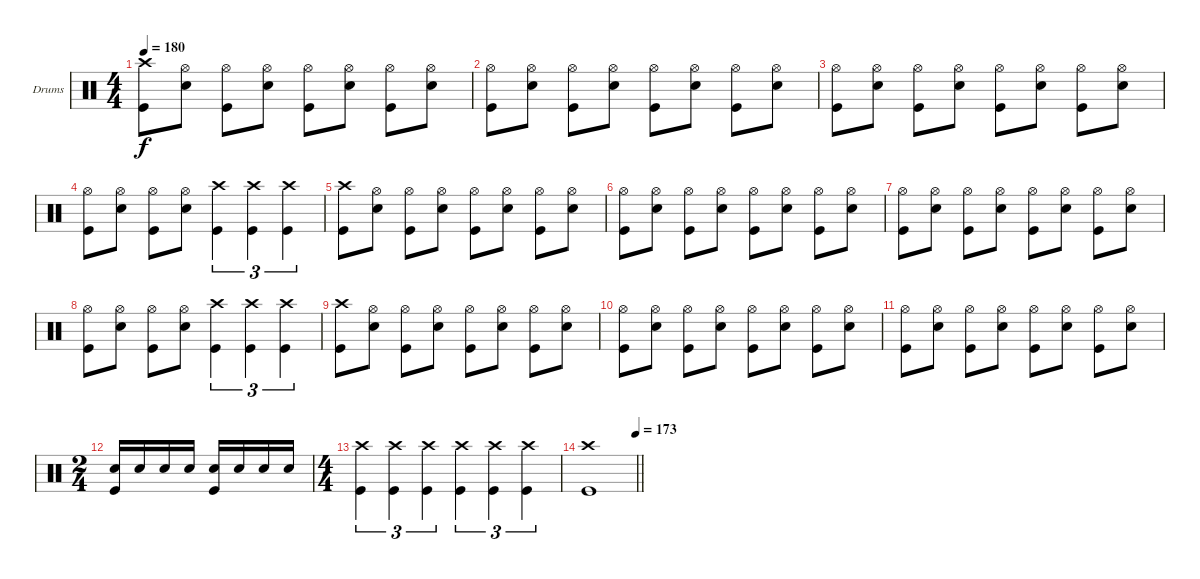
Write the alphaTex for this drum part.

\bracketExtendMode groupsimilarinstruments
\firstSystemTrackNameOrientation horizontal
\otherSystemsTrackNameOrientation horizontal
\track ("Drums" "Drums") {instrument percussion}
\staff {score}
\articulation defaults
\ts (4 4)
\tempo 180
\clef neutral
\ks c
("Crash high (hit)" "Kick (hit)").8{dy f} ("Hi-Hat (open)" "Snare (hit) 2").8 ("Hi-Hat (open)" "Kick (hit)").8 ("Hi-Hat (open)" "Snare (hit) 2").8 ("Hi-Hat (open)" "Kick (hit)").8 ("Hi-Hat (open)" "Snare (hit) 2").8 ("Hi-Hat (open)" "Kick (hit)").8 ("Hi-Hat (open)" "Snare (hit) 2").8 |
("Hi-Hat (open)" "Kick (hit)").8 ("Hi-Hat (open)" "Snare (hit) 2").8 ("Hi-Hat (open)" "Kick (hit)").8 ("Hi-Hat (open)" "Snare (hit) 2").8 ("Hi-Hat (open)" "Kick (hit)").8 ("Hi-Hat (open)" "Snare (hit) 2").8 ("Hi-Hat (open)" "Kick (hit)").8 ("Hi-Hat (open)" "Snare (hit) 2").8 |
("Hi-Hat (open)" "Kick (hit)").8 ("Hi-Hat (open)" "Snare (hit) 2").8 ("Hi-Hat (open)" "Kick (hit)").8 ("Hi-Hat (open)" "Snare (hit) 2").8 ("Hi-Hat (open)" "Kick (hit)").8 ("Hi-Hat (open)" "Snare (hit) 2").8 ("Hi-Hat (open)" "Kick (hit)").8 ("Hi-Hat (open)" "Snare (hit) 2").8 |
("Hi-Hat (open)" "Kick (hit)").8 ("Hi-Hat (open)" "Snare (hit) 2").8 ("Hi-Hat (open)" "Kick (hit)").8 ("Hi-Hat (open)" "Snare (hit) 2").8 ("Crash high (hit)" "Kick (hit)").4{tu (3 2)} ("Crash high (hit)" "Kick (hit)").4{tu (3 2)} ("Crash high (hit)" "Kick (hit)").4{tu (3 2)} |
("Crash high (hit)" "Kick (hit)").8 ("Hi-Hat (open)" "Snare (hit) 2").8 ("Hi-Hat (open)" "Kick (hit)").8 ("Hi-Hat (open)" "Snare (hit) 2").8 ("Hi-Hat (open)" "Kick (hit)").8 ("Hi-Hat (open)" "Snare (hit) 2").8 ("Hi-Hat (open)" "Kick (hit)").8 ("Hi-Hat (open)" "Snare (hit) 2").8 |
("Hi-Hat (open)" "Kick (hit)").8 ("Hi-Hat (open)" "Snare (hit) 2").8 ("Hi-Hat (open)" "Kick (hit)").8 ("Hi-Hat (open)" "Snare (hit) 2").8 ("Hi-Hat (open)" "Kick (hit)").8 ("Hi-Hat (open)" "Snare (hit) 2").8 ("Hi-Hat (open)" "Kick (hit)").8 ("Hi-Hat (open)" "Snare (hit) 2").8 |
("Hi-Hat (open)" "Kick (hit)").8 ("Hi-Hat (open)" "Snare (hit) 2").8 ("Hi-Hat (open)" "Kick (hit)").8 ("Hi-Hat (open)" "Snare (hit) 2").8 ("Hi-Hat (open)" "Kick (hit)").8 ("Hi-Hat (open)" "Snare (hit) 2").8 ("Hi-Hat (open)" "Kick (hit)").8 ("Hi-Hat (open)" "Snare (hit) 2").8 |
("Hi-Hat (open)" "Kick (hit)").8 ("Hi-Hat (open)" "Snare (hit) 2").8 ("Hi-Hat (open)" "Kick (hit)").8 ("Hi-Hat (open)" "Snare (hit) 2").8 ("Crash high (hit)" "Kick (hit)").4{tu (3 2)} ("Crash high (hit)" "Kick (hit)").4{tu (3 2)} ("Crash high (hit)" "Kick (hit)").4{tu (3 2)} |
("Crash high (hit)" "Kick (hit)").8 ("Hi-Hat (open)" "Snare (hit) 2").8 ("Hi-Hat (open)" "Kick (hit)").8 ("Hi-Hat (open)" "Snare (hit) 2").8 ("Hi-Hat (open)" "Kick (hit)").8 ("Hi-Hat (open)" "Snare (hit) 2").8 ("Hi-Hat (open)" "Kick (hit)").8 ("Hi-Hat (open)" "Snare (hit) 2").8 |
("Hi-Hat (open)" "Kick (hit)").8 ("Hi-Hat (open)" "Snare (hit) 2").8 ("Hi-Hat (open)" "Kick (hit)").8 ("Hi-Hat (open)" "Snare (hit) 2").8 ("Hi-Hat (open)" "Kick (hit)").8 ("Hi-Hat (open)" "Snare (hit) 2").8 ("Hi-Hat (open)" "Kick (hit)").8 ("Hi-Hat (open)" "Snare (hit) 2").8 |
("Hi-Hat (open)" "Kick (hit)").8 ("Hi-Hat (open)" "Snare (hit) 2").8 ("Hi-Hat (open)" "Kick (hit)").8 ("Hi-Hat (open)" "Snare (hit) 2").8 ("Hi-Hat (open)" "Kick (hit)").8 ("Hi-Hat (open)" "Snare (hit) 2").8 ("Hi-Hat (open)" "Kick (hit)").8 ("Hi-Hat (open)" "Snare (hit) 2").8 |
\ts (2 4)
\beaming (8 2 2)
("Snare (hit) 2" "Kick (hit)").16 "Snare (hit) 2".16 "Snare (hit) 2".16 "Snare (hit) 2".16 ("Snare (hit) 2" "Kick (hit)").16 "Snare (hit) 2".16 "Snare (hit) 2".16 "Snare (hit) 2".16 |
\ts (4 4)
\beaming (8 2 2 2 2)
("Crash high (hit)" "Kick (hit)").4{tu (3 2)} ("Crash high (hit)" "Kick (hit)").4{tu (3 2)} ("Crash high (hit)" "Kick (hit)").4{tu (3 2)} ("Crash high (hit)" "Kick (hit)").4{tu (3 2)} ("Crash high (hit)" "Kick (hit)").4{tu (3 2)} ("Crash high (hit)" "Kick (hit)").4{tu (3 2)} |
\tempo (173 1)
\barLineRight lightlight
("Crash high (hit)" "Kick (hit)").1
